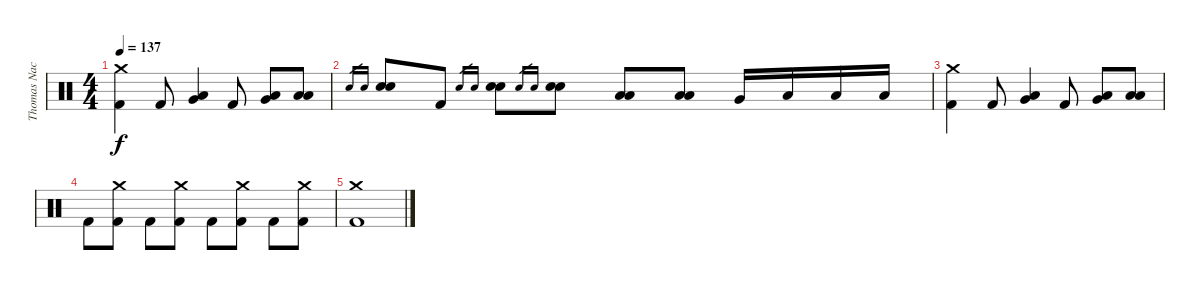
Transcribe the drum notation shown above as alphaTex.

\track ("Thomas Nack" "Thomas Nac") {instrument percussion}
\staff {score}
\articulation defaults
\ts (4 4)
\tempo 137
\clef neutral
\ks c
("Crash medium (hit)" "Kick (hit) 2").4{dy f} "Kick (hit) 2".8 ("Very Low Tom (hit)" "Low Floor Tom (hit)").4 "Kick (hit) 2".8 ("Very Low Tom (hit)" "Low Floor Tom (hit)").8 ("Low Floor Tom (hit)" "Low Floor Tom (hit)").8 |
"Electric Snare (hit)".16{gr} "Electric Snare (hit)".16{gr} ("Electric Snare (hit)" "Electric Snare (hit)").8 "Kick (hit) 2".8 "Electric Snare (hit)".16{gr} "Electric Snare (hit)".16{gr} ("Electric Snare (hit)" "Electric Snare (hit)").8 "Electric Snare (hit)".16{gr} "Electric Snare (hit)".16{gr} ("Electric Snare (hit)" "Electric Snare (hit)").8 ("Low Floor Tom (hit)" "Low Floor Tom (hit)").8 ("Low Floor Tom (hit)" "Low Floor Tom (hit)").8 "Very Low Tom (hit)".16 "Low Floor Tom (hit)".16 "Low Floor Tom (hit)".16 "Low Floor Tom (hit)".16 |
("Crash medium (hit)" "Kick (hit) 2").4 "Kick (hit) 2".8 ("Very Low Tom (hit)" "Low Floor Tom (hit)").4 "Kick (hit) 2".8 ("Very Low Tom (hit)" "Low Floor Tom (hit)").8 ("Low Floor Tom (hit)" "Low Floor Tom (hit)").8 |
"Kick (hit) 2".8 ("Crash medium (hit)" "Kick (hit) 2").8 "Kick (hit) 2".8 ("Crash medium (hit)" "Kick (hit) 2").8 "Kick (hit) 2".8 ("Crash medium (hit)" "Kick (hit) 2").8 "Kick (hit) 2".8 ("Crash medium (hit)" "Kick (hit) 2").8 |
("Crash medium (hit)" "Kick (hit) 2").1
